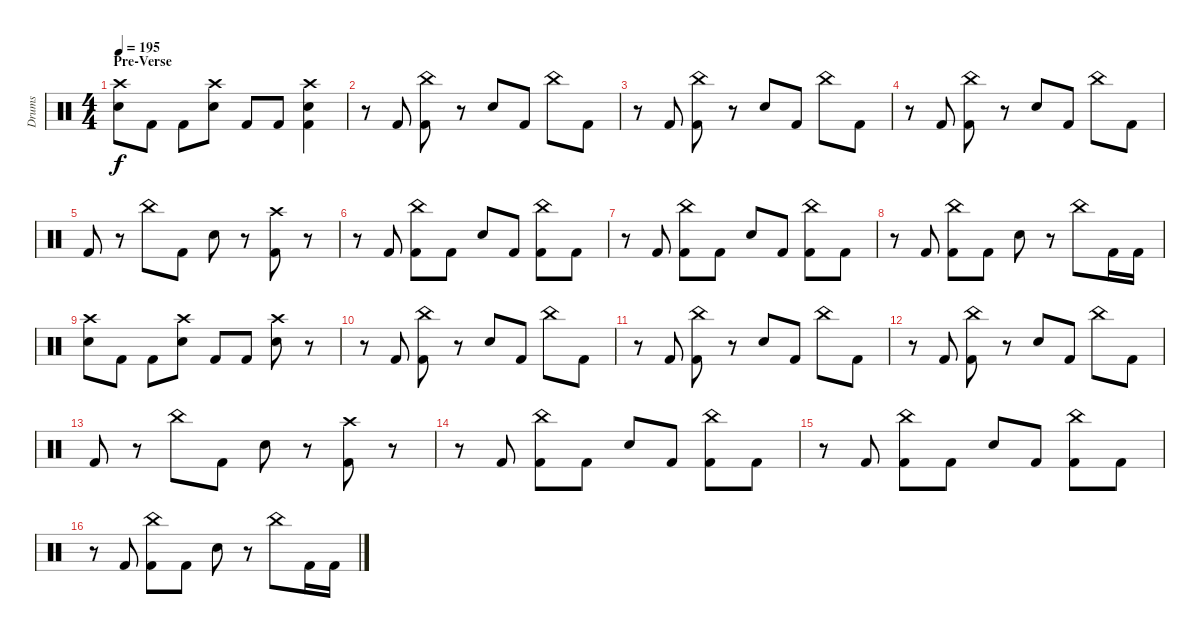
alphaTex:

\track ("Drums" "Drums") {instrument percussion}
\staff {score}
\articulation defaults
\ts (4 4)
\section ("" "Pre-Verse")
\tempo 195
\clef neutral
\ks c
("Crash high (hit)" "Snare (hit) 2").8{dy f} "Kick (hit) 2".8 "Kick (hit) 2".8 ("Crash high (hit)" "Snare (hit) 2").8 "Kick (hit) 2".8 "Kick (hit) 2".8 ("Crash high (hit)" "Snare (hit) 2" "Kick (hit) 2").4 |
r.8 "Kick (hit) 2".8 ("China (hit)" "Kick (hit) 2").8 r.8 "Snare (hit) 2".8 "Kick (hit) 2".8 "China (hit)".8 "Kick (hit) 2".8 |
r.8 "Kick (hit) 2".8 ("China (hit)" "Kick (hit) 2").8 r.8 "Snare (hit) 2".8 "Kick (hit) 2".8 "China (hit)".8 "Kick (hit) 2".8 |
r.8 "Kick (hit) 2".8 ("China (hit)" "Kick (hit) 2").8 r.8 "Snare (hit) 2".8 "Kick (hit) 2".8 "China (hit)".8 "Kick (hit) 2".8 |
"Kick (hit) 2".8 r.8 "China (hit)".8 "Kick (hit) 2".8 "Snare (hit) 2".8 r.8 ("Crash high (hit)" "Kick (hit) 2").8 r.8 |
r.8 "Kick (hit) 2".8 ("China (hit)" "Kick (hit) 2").8 "Kick (hit) 2".8 "Snare (hit) 2".8 "Kick (hit) 2".8 ("China (hit)" "Kick (hit) 2").8 "Kick (hit) 2".8 |
r.8 "Kick (hit) 2".8 ("China (hit)" "Kick (hit) 2").8 "Kick (hit) 2".8 "Snare (hit) 2".8 "Kick (hit) 2".8 ("China (hit)" "Kick (hit) 2").8 "Kick (hit) 2".8 |
r.8 "Kick (hit) 2".8 ("China (hit)" "Kick (hit) 2").8 "Kick (hit) 2".8 "Snare (hit) 2".8 r.8 "China (hit)".8 "Kick (hit) 2".16 "Kick (hit) 2".16 |
("Crash high (hit)" "Snare (hit) 2").8 "Kick (hit) 2".8 "Kick (hit) 2".8 ("Crash high (hit)" "Snare (hit) 2").8 "Kick (hit) 2".8 "Kick (hit) 2".8 ("Crash high (hit)" "Snare (hit) 2").8 r.8 |
r.8 "Kick (hit) 2".8 ("China (hit)" "Kick (hit) 2").8 r.8 "Snare (hit) 2".8 "Kick (hit) 2".8 "China (hit)".8 "Kick (hit) 2".8 |
r.8 "Kick (hit) 2".8 ("China (hit)" "Kick (hit) 2").8 r.8 "Snare (hit) 2".8 "Kick (hit) 2".8 "China (hit)".8 "Kick (hit) 2".8 |
r.8 "Kick (hit) 2".8 ("China (hit)" "Kick (hit) 2").8 r.8 "Snare (hit) 2".8 "Kick (hit) 2".8 "China (hit)".8 "Kick (hit) 2".8 |
"Kick (hit) 2".8 r.8 "China (hit)".8 "Kick (hit) 2".8 "Snare (hit) 2".8 r.8 ("Crash high (hit)" "Kick (hit) 2").8 r.8 |
r.8 "Kick (hit) 2".8 ("China (hit)" "Kick (hit) 2").8 "Kick (hit) 2".8 "Snare (hit) 2".8 "Kick (hit) 2".8 ("China (hit)" "Kick (hit) 2").8 "Kick (hit) 2".8 |
r.8 "Kick (hit) 2".8 ("China (hit)" "Kick (hit) 2").8 "Kick (hit) 2".8 "Snare (hit) 2".8 "Kick (hit) 2".8 ("China (hit)" "Kick (hit) 2").8 "Kick (hit) 2".8 |
r.8 "Kick (hit) 2".8 ("China (hit)" "Kick (hit) 2").8 "Kick (hit) 2".8 "Snare (hit) 2".8 r.8 "China (hit)".8 "Kick (hit) 2".16 "Kick (hit) 2".16
